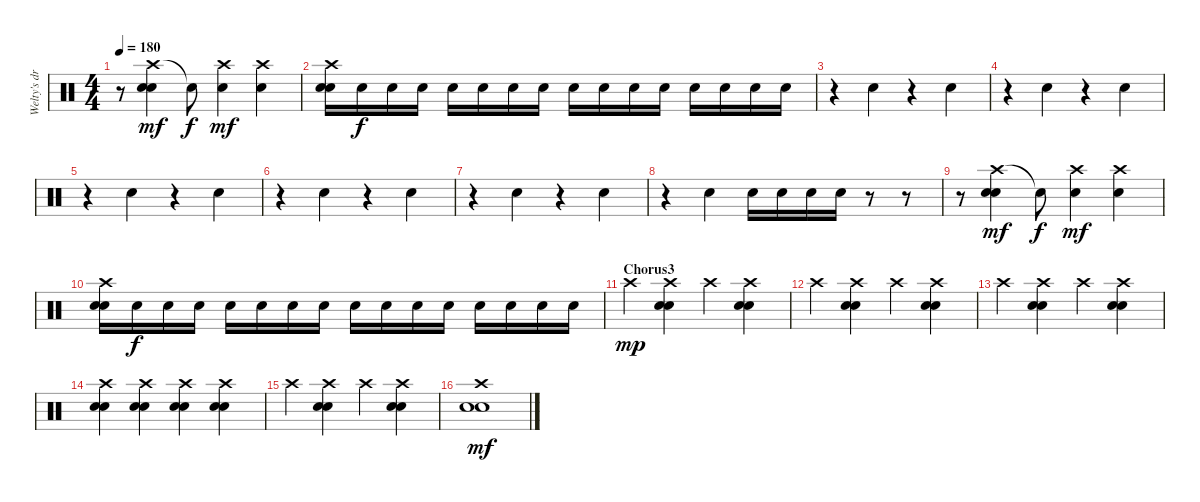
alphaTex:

\track ("Welty's drums" "Welty's dr") {instrument percussion}
\staff {score}
\articulation defaults
\ts (4 4)
\tempo 180
\clef neutral
\ks c
r.8{dy f} ("Crash high (hit)" "Electric Snare (hit)" "Electric Snare (hit)").4{dy mf} "Snare (hit)"{t}.8{dy f} ("Crash high (hit)" "Electric Snare (hit)").4{dy mf} ("Crash high (hit)" "Electric Snare (hit)").4 |
("Crash high (hit)" "Electric Snare (hit)" "Electric Snare (hit)").16 "Electric Snare (hit)".16{dy f} "Electric Snare (hit)".16 "Electric Snare (hit)".16 "Electric Snare (hit)".16 "Electric Snare (hit)".16 "Electric Snare (hit)".16 "Electric Snare (hit)".16 "Electric Snare (hit)".16 "Electric Snare (hit)".16 "Electric Snare (hit)".16 "Electric Snare (hit)".16 "Electric Snare (hit)".16 "Electric Snare (hit)".16 "Electric Snare (hit)".16 "Electric Snare (hit)".16 |
r.4 "Electric Snare (hit)".4 r.4 "Electric Snare (hit)".4 |
r.4 "Electric Snare (hit)".4 r.4 "Electric Snare (hit)".4 |
r.4 "Electric Snare (hit)".4 r.4 "Electric Snare (hit)".4 |
r.4 "Electric Snare (hit)".4 r.4 "Electric Snare (hit)".4 |
r.4 "Electric Snare (hit)".4 r.4 "Electric Snare (hit)".4 |
r.4 "Electric Snare (hit)".4 "Electric Snare (hit)".16 "Electric Snare (hit)".16 "Electric Snare (hit)".16 "Electric Snare (hit)".16 r.8 r.8 |
\section ("" "")
r.8 ("Crash high (hit)" "Electric Snare (hit)" "Electric Snare (hit)").4{dy mf} "Snare (hit)"{t}.8{dy f} ("Crash high (hit)" "Electric Snare (hit)").4{dy mf} ("Crash high (hit)" "Electric Snare (hit)").4 |
("Crash high (hit)" "Electric Snare (hit)" "Electric Snare (hit)").16 "Electric Snare (hit)".16{dy f} "Electric Snare (hit)".16 "Electric Snare (hit)".16 "Electric Snare (hit)".16 "Electric Snare (hit)".16 "Electric Snare (hit)".16 "Electric Snare (hit)".16 "Electric Snare (hit)".16 "Electric Snare (hit)".16 "Electric Snare (hit)".16 "Electric Snare (hit)".16 "Electric Snare (hit)".16 "Electric Snare (hit)".16 "Electric Snare (hit)".16 "Electric Snare (hit)".16 |
\section ("" "Chorus3")
"Crash high (hit)".4{dy mp} ("Crash high (hit)" "Electric Snare (hit)" "Electric Snare (hit)").4 "Crash high (hit)".4 ("Crash high (hit)" "Electric Snare (hit)" "Electric Snare (hit)").4 |
"Crash high (hit)".4 ("Crash high (hit)" "Electric Snare (hit)" "Electric Snare (hit)").4 "Crash high (hit)".4 ("Crash high (hit)" "Electric Snare (hit)" "Electric Snare (hit)").4 |
"Crash high (hit)".4 ("Crash high (hit)" "Electric Snare (hit)" "Electric Snare (hit)").4 "Crash high (hit)".4 ("Crash high (hit)" "Electric Snare (hit)" "Electric Snare (hit)").4 |
("Crash high (hit)" "Electric Snare (hit)" "Electric Snare (hit)").4 ("Crash high (hit)" "Electric Snare (hit)" "Electric Snare (hit)").4 ("Crash high (hit)" "Electric Snare (hit)" "Electric Snare (hit)").4 ("Crash high (hit)" "Electric Snare (hit)" "Electric Snare (hit)").4 |
"Crash high (hit)".4 ("Crash high (hit)" "Electric Snare (hit)" "Electric Snare (hit)").4 "Crash high (hit)".4 ("Crash high (hit)" "Electric Snare (hit)" "Electric Snare (hit)").4 |
("Crash high (hit)" "Electric Snare (hit)" "Electric Snare (hit)").1{dy mf}
